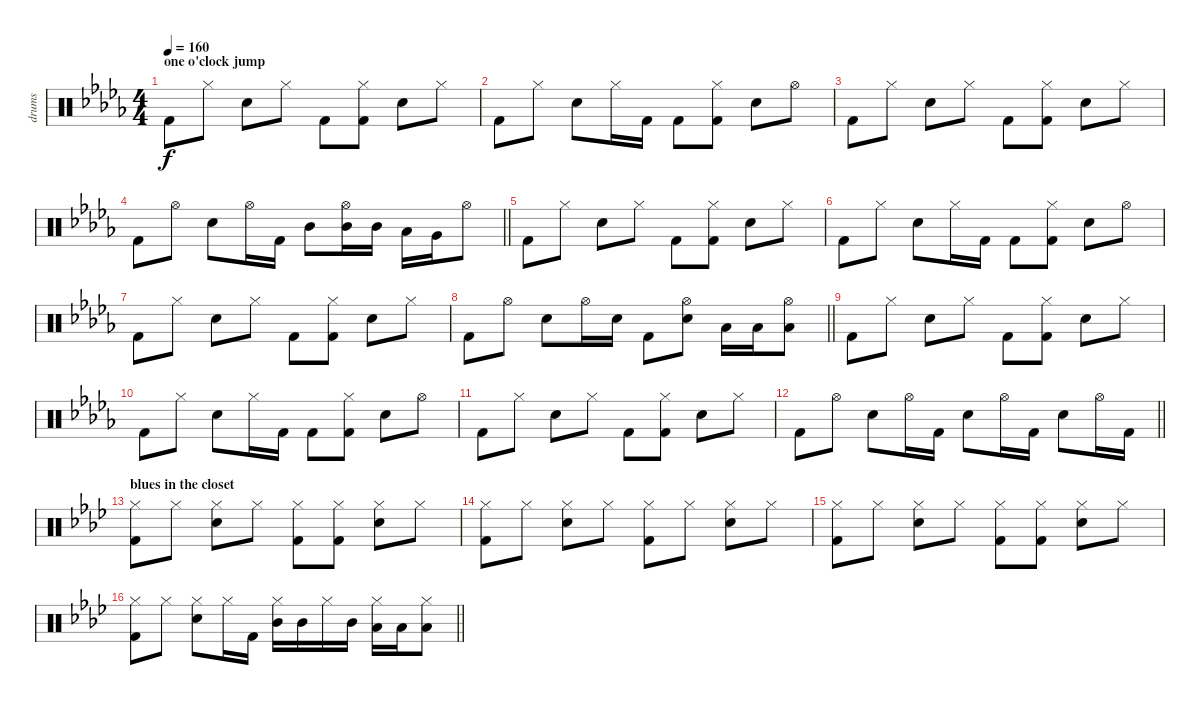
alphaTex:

\track ("drums" "drums") {instrument percussion}
\staff {score}
\articulation defaults
\ts (4 4)
\section ("" "one o'clock jump")
\tempo 160
\clef neutral
\ks bbminor "Kick (hit) 2".8{dy f} "Hi-Hat (closed)".8 "Electric Snare (hit)".8 "Hi-Hat (closed)".8 "Kick (hit) 2".8
("Hi-Hat (closed)" "Kick (hit) 2").8 "Electric Snare (hit)".8 "Hi-Hat (closed)".8 |
"Kick (hit) 2".8 "Hi-Hat (closed)".8 "Electric Snare (hit)".8 "Hi-Hat (closed)".16 "Kick (hit) 2".16 "Kick (hit) 2".8 ("Hi-Hat (closed)" "Kick (hit) 2").8 "Electric Snare (hit)".8 "Hi-Hat (open)".8 |
"Kick (hit) 2".8 "Hi-Hat (closed)".8 "Electric Snare (hit)".8 "Hi-Hat (closed)".8 "Kick (hit) 2".8 ("Hi-Hat (closed)" "Kick (hit) 2").8 "Electric Snare (hit)".8 "Hi-Hat (closed)".8 |
\barLineRight lightlight "Kick (hit) 2".8 "Hi-Hat (open)".8 "Electric Snare (hit)".8 "Hi-Hat (open)".16 "Kick (hit) 2".16 "Mid Tom (hit)".8
("Hi-Hat (open)" "Mid Tom (hit)").16 "Mid Tom (hit)".16 "Low Tom (hit)".16 "Very Low Tom (hit)".16 "Hi-Hat (open)".8 |
"Kick (hit) 2".8 "Hi-Hat (closed)".8 "Electric Snare (hit)".8 "Hi-Hat (closed)".8 "Kick (hit) 2".8 ("Hi-Hat (closed)" "Kick (hit) 2").8 "Electric Snare (hit)".8 "Hi-Hat (closed)".8 |
"Kick (hit) 2".8 "Hi-Hat (closed)".8 "Electric Snare (hit)".8 "Hi-Hat (closed)".16 "Kick (hit) 2".16 "Kick (hit) 2".8 ("Hi-Hat (closed)" "Kick (hit) 2").8 "Electric Snare (hit)".8 "Hi-Hat (open)".8 |
"Kick (hit) 2".8 "Hi-Hat (closed)".8 "Electric Snare (hit)".8 "Hi-Hat (closed)".8 "Kick (hit) 2".8 ("Hi-Hat (closed)" "Kick (hit) 2").8 "Electric Snare (hit)".8 "Hi-Hat (closed)".8 |
\barLineRight lightlight "Kick (hit) 2".8 "Hi-Hat (open)".8 "Electric Snare (hit)".8 "Hi-Hat (open)".16 "Electric Snare (hit)".16 "Kick (hit) 2".8
("Hi-Hat (open)" "Electric Snare (hit)").8 "Low Tom (hit)".16 "Low Tom (hit)".16 ("Hi-Hat (open)" "Low Tom (hit)").8 |
"Kick (hit) 2".8 "Hi-Hat (closed)".8 "Electric Snare (hit)".8 "Hi-Hat (closed)".8 "Kick (hit) 2".8 ("Hi-Hat (closed)" "Kick (hit) 2").8 "Electric Snare (hit)".8 "Hi-Hat (closed)".8 |
"Kick (hit) 2".8 "Hi-Hat (closed)".8 "Electric Snare (hit)".8 "Hi-Hat (closed)".16 "Kick (hit) 2".16 "Kick (hit) 2".8 ("Hi-Hat (closed)" "Kick (hit) 2").8 "Electric Snare (hit)".8 "Hi-Hat (open)".8 |
"Kick (hit) 2".8 "Hi-Hat (closed)".8 "Electric Snare (hit)".8 "Hi-Hat (closed)".8 "Kick (hit) 2".8 ("Hi-Hat (closed)" "Kick (hit) 2").8 "Electric Snare (hit)".8 "Hi-Hat (closed)".8 |
\barLineRight lightlight "Kick (hit) 2".8 "Hi-Hat (open)".8 "Electric Snare (hit)".8 "Hi-Hat (open)".16 "Kick (hit) 2".16 "Electric Snare (hit)".8 "Hi-Hat (open)".16 "Kick (hit) 2".16 "Electric Snare (hit)".8 "Hi-Hat (open)".16 "Kick (hit) 2".16
|
\section ("" "blues in the closet")
\ks ab
("Hi-Hat (closed)" "Kick (hit) 2").8 "Hi-Hat (closed)".8 ("Hi-Hat (closed)" "Electric Snare (hit)").8 "Hi-Hat (closed)".8 ("Hi-Hat (closed)" "Kick (hit) 2").8 ("Hi-Hat (closed)" "Kick (hit) 2").8 ("Hi-Hat (closed)" "Electric Snare (hit)").8 "Hi-Hat (closed)".8 |
("Hi-Hat (closed)" "Kick (hit) 2").8 "Hi-Hat (closed)".8 ("Hi-Hat (closed)" "Electric Snare (hit)").8 "Hi-Hat (closed)".8 ("Hi-Hat (closed)" "Kick (hit) 2").8 "Hi-Hat (closed)".8 ("Hi-Hat (closed)" "Electric Snare (hit)").8 "Hi-Hat (closed)".8 |
("Hi-Hat (closed)" "Kick (hit) 2").8 "Hi-Hat (closed)".8 ("Hi-Hat (closed)" "Electric Snare (hit)").8 "Hi-Hat (closed)".8 ("Hi-Hat (closed)" "Kick (hit) 2").8 ("Hi-Hat (closed)" "Kick (hit) 2").8 ("Hi-Hat (closed)" "Electric Snare (hit)").8 "Hi-Hat (closed)".8 |
\barLineRight lightlight
("Hi-Hat (closed)" "Kick (hit) 2").8 "Hi-Hat (closed)".8 ("Hi-Hat (closed)" "Electric Snare (hit)").8 "Hi-Hat (closed)".16 "Kick (hit) 2".16 ("Hi-Hat (closed)" "Mid Tom (hit)").16 "Mid Tom (hit)".16 "Hi-Hat (closed)".16 "Mid Tom (hit)".16 ("Hi-Hat (closed)" "Low Tom (hit)").16 "Low Tom (hit)".16 ("Hi-Hat (closed)" "Low Tom (hit)").8
